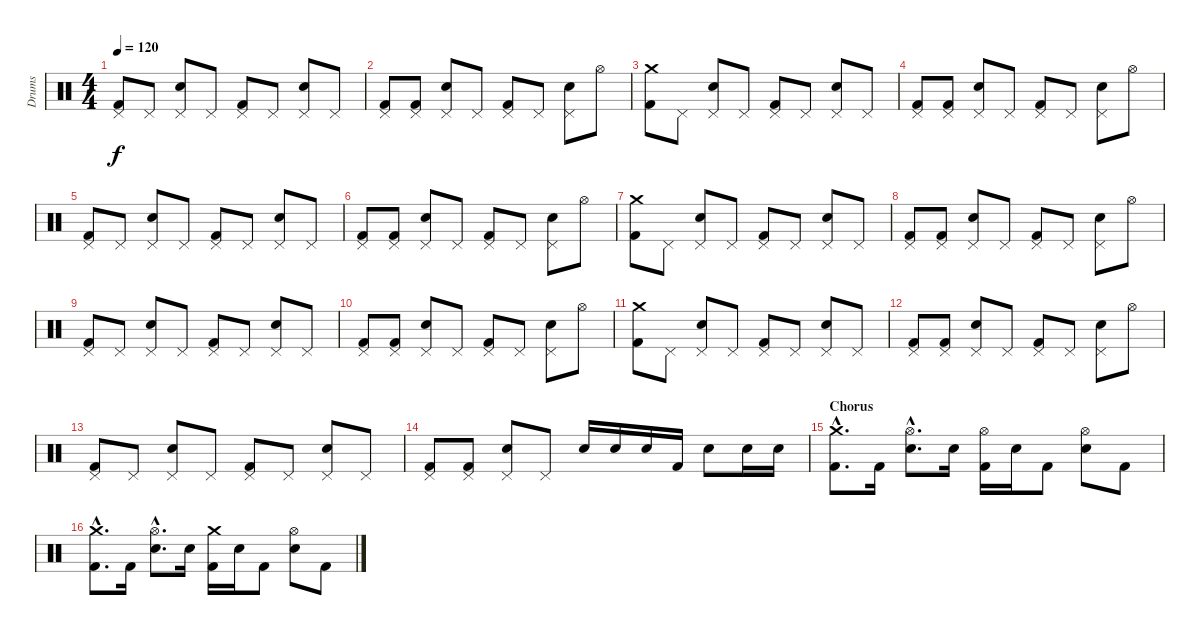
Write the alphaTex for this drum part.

\track ("Drums" "Drums") {instrument percussion}
\staff {score}
\articulation defaults
\ts (4 4)
\tempo 120
\clef neutral
\ks c
("Pedal Hi-Hat (hit)" "Kick (hit) 2").8{dy f} "Pedal Hi-Hat (hit)".8 ("Pedal Hi-Hat (hit)" "Electric Snare (hit)").8 "Pedal Hi-Hat (hit)".8 ("Pedal Hi-Hat (hit)" "Kick (hit) 2").8 "Pedal Hi-Hat (hit)".8 ("Pedal Hi-Hat (hit)" "Electric Snare (hit)").8 "Pedal Hi-Hat (hit)".8 |
("Pedal Hi-Hat (hit)" "Kick (hit) 2").8 ("Pedal Hi-Hat (hit)" "Kick (hit) 2").8 ("Pedal Hi-Hat (hit)" "Electric Snare (hit)").8 "Pedal Hi-Hat (hit)".8 ("Pedal Hi-Hat (hit)" "Kick (hit) 2").8 "Pedal Hi-Hat (hit)".8 ("Pedal Hi-Hat (hit)" "Electric Snare (hit)").8 "Hi-Hat (open)".8 |
("Crash medium (hit)" "Kick (hit) 2").8 "Pedal Hi-Hat (hit)".8 ("Pedal Hi-Hat (hit)" "Electric Snare (hit)").8 "Pedal Hi-Hat (hit)".8 ("Pedal Hi-Hat (hit)" "Kick (hit) 2").8 "Pedal Hi-Hat (hit)".8 ("Pedal Hi-Hat (hit)" "Electric Snare (hit)").8 "Pedal Hi-Hat (hit)".8 |
("Pedal Hi-Hat (hit)" "Kick (hit) 2").8 ("Pedal Hi-Hat (hit)" "Kick (hit) 2").8 ("Pedal Hi-Hat (hit)" "Electric Snare (hit)").8 "Pedal Hi-Hat (hit)".8 ("Pedal Hi-Hat (hit)" "Kick (hit) 2").8 "Pedal Hi-Hat (hit)".8 ("Pedal Hi-Hat (hit)" "Electric Snare (hit)").8 "Hi-Hat (open)".8 |
("Pedal Hi-Hat (hit)" "Kick (hit) 2").8 "Pedal Hi-Hat (hit)".8 ("Pedal Hi-Hat (hit)" "Electric Snare (hit)").8 "Pedal Hi-Hat (hit)".8 ("Pedal Hi-Hat (hit)" "Kick (hit) 2").8 "Pedal Hi-Hat (hit)".8 ("Pedal Hi-Hat (hit)" "Electric Snare (hit)").8 "Pedal Hi-Hat (hit)".8 |
("Pedal Hi-Hat (hit)" "Kick (hit) 2").8 ("Pedal Hi-Hat (hit)" "Kick (hit) 2").8 ("Pedal Hi-Hat (hit)" "Electric Snare (hit)").8 "Pedal Hi-Hat (hit)".8 ("Pedal Hi-Hat (hit)" "Kick (hit) 2").8 "Pedal Hi-Hat (hit)".8 ("Pedal Hi-Hat (hit)" "Electric Snare (hit)").8 "Hi-Hat (open)".8 |
("Crash medium (hit)" "Kick (hit) 2").8 "Pedal Hi-Hat (hit)".8 ("Pedal Hi-Hat (hit)" "Electric Snare (hit)").8 "Pedal Hi-Hat (hit)".8 ("Pedal Hi-Hat (hit)" "Kick (hit) 2").8 "Pedal Hi-Hat (hit)".8 ("Pedal Hi-Hat (hit)" "Electric Snare (hit)").8 "Pedal Hi-Hat (hit)".8 |
("Pedal Hi-Hat (hit)" "Kick (hit) 2").8 ("Pedal Hi-Hat (hit)" "Kick (hit) 2").8 ("Pedal Hi-Hat (hit)" "Electric Snare (hit)").8 "Pedal Hi-Hat (hit)".8 ("Pedal Hi-Hat (hit)" "Kick (hit) 2").8 "Pedal Hi-Hat (hit)".8 ("Pedal Hi-Hat (hit)" "Electric Snare (hit)").8 "Hi-Hat (open)".8 |
("Pedal Hi-Hat (hit)" "Kick (hit) 2").8 "Pedal Hi-Hat (hit)".8 ("Pedal Hi-Hat (hit)" "Electric Snare (hit)").8 "Pedal Hi-Hat (hit)".8 ("Pedal Hi-Hat (hit)" "Kick (hit) 2").8 "Pedal Hi-Hat (hit)".8 ("Pedal Hi-Hat (hit)" "Electric Snare (hit)").8 "Pedal Hi-Hat (hit)".8 |
("Pedal Hi-Hat (hit)" "Kick (hit) 2").8 ("Pedal Hi-Hat (hit)" "Kick (hit) 2").8 ("Pedal Hi-Hat (hit)" "Electric Snare (hit)").8 "Pedal Hi-Hat (hit)".8 ("Pedal Hi-Hat (hit)" "Kick (hit) 2").8 "Pedal Hi-Hat (hit)".8 ("Pedal Hi-Hat (hit)" "Electric Snare (hit)").8 "Hi-Hat (open)".8 |
("Crash medium (hit)" "Kick (hit) 2").8 "Pedal Hi-Hat (hit)".8 ("Pedal Hi-Hat (hit)" "Electric Snare (hit)").8 "Pedal Hi-Hat (hit)".8 ("Pedal Hi-Hat (hit)" "Kick (hit) 2").8 "Pedal Hi-Hat (hit)".8 ("Pedal Hi-Hat (hit)" "Electric Snare (hit)").8 "Pedal Hi-Hat (hit)".8 |
("Pedal Hi-Hat (hit)" "Kick (hit) 2").8 ("Pedal Hi-Hat (hit)" "Kick (hit) 2").8 ("Pedal Hi-Hat (hit)" "Electric Snare (hit)").8 "Pedal Hi-Hat (hit)".8 ("Pedal Hi-Hat (hit)" "Kick (hit) 2").8 "Pedal Hi-Hat (hit)".8 ("Pedal Hi-Hat (hit)" "Electric Snare (hit)").8 "Hi-Hat (open)".8 |
("Pedal Hi-Hat (hit)" "Kick (hit) 2").8 "Pedal Hi-Hat (hit)".8 ("Pedal Hi-Hat (hit)" "Electric Snare (hit)").8 "Pedal Hi-Hat (hit)".8 ("Pedal Hi-Hat (hit)" "Kick (hit) 2").8 "Pedal Hi-Hat (hit)".8 ("Pedal Hi-Hat (hit)" "Electric Snare (hit)").8 "Pedal Hi-Hat (hit)".8 |
("Pedal Hi-Hat (hit)" "Kick (hit) 2").8 ("Pedal Hi-Hat (hit)" "Kick (hit) 2").8 ("Pedal Hi-Hat (hit)" "Electric Snare (hit)").8 "Pedal Hi-Hat (hit)".8 "Electric Snare (hit)".16 "Electric Snare (hit)".16 "Electric Snare (hit)".16 "Kick (hit) 2".16 "Electric Snare (hit)".8 "Electric Snare (hit)".16 "Electric Snare (hit)".16 |
\section ("" "Chorus")
("Crash medium (hit)"{hac} "Kick (hit) 2"{hac}).8{d} "Kick (hit) 2".16 ("Hi-Hat (open)"{hac} "Electric Snare (hit)"{hac}).8{d} "Electric Snare (hit)".16 ("Hi-Hat (open)" "Kick (hit) 2").16 "Electric Snare (hit)".16 "Kick (hit) 2".8 ("Hi-Hat (open)" "Electric Snare (hit)").8 "Kick (hit) 2".8 |
("Crash medium (hit)"{hac} "Kick (hit) 2"{hac}).8{d} "Kick (hit) 2".16 ("Hi-Hat (open)"{hac} "Electric Snare (hit)"{hac}).8{d} "Electric Snare (hit)".16 ("Crash medium (hit)" "Kick (hit) 2").16 "Electric Snare (hit)".16 "Kick (hit) 2".8 ("Hi-Hat (open)" "Electric Snare (hit)").8 "Kick (hit) 2".8
